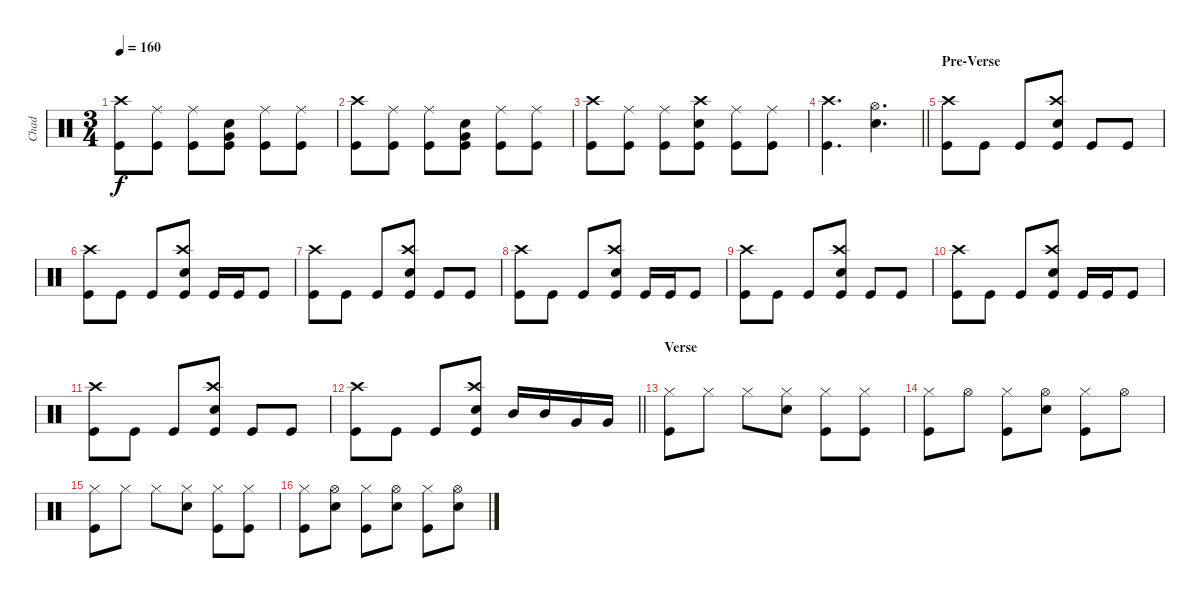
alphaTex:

\track ("Chad" "Chad") {instrument percussion}
\staff {score}
\articulation defaults
\ts (3 4)
\tempo 160
\clef neutral
\ks c
("Kick (hit)" "Crash high (hit)").8{dy f} ("Kick (hit)" "Ride (middle)").8 ("Kick (hit)" "Ride (middle)").8 ("Kick (hit)" "Snare (hit) 2" "Very Low Tom (hit)").8 ("Kick (hit)" "Ride (middle)").8 ("Kick (hit)" "Ride (middle)").8 |
("Kick (hit)" "Crash high (hit)").8 ("Kick (hit)" "Ride (middle)").8 ("Kick (hit)" "Ride (middle)").8 ("Kick (hit)" "Snare (hit) 2" "Very Low Tom (hit)").8 ("Kick (hit)" "Ride (middle)").8 ("Ride (middle)" "Kick (hit)").8 |
("Crash high (hit)" "Kick (hit)").8 ("Ride (middle)" "Kick (hit)").8 ("Ride (middle)" "Kick (hit)").8 ("Crash high (hit)" "Snare (hit) 2" "Kick (hit)").8 ("Ride (middle)" "Kick (hit)").8 ("Ride (middle)" "Kick (hit)").8 |
\barLineRight lightlight
("Kick (hit)" "Crash high (hit)").4{d} ("Snare (hit) 2" "Hi-Hat (open)").4{d} |
\section ("" "Pre-Verse")
("Crash high (hit)" "Kick (hit)").8 "Kick (hit)".8 "Kick (hit)".8 ("Kick (hit)" "Snare (hit) 2" "Crash high (hit)").8 "Kick (hit)".8 "Kick (hit)".8 |
("Crash high (hit)" "Kick (hit)").8 "Kick (hit)".8 "Kick (hit)".8 ("Kick (hit)" "Snare (hit) 2" "Crash high (hit)").8 "Kick (hit)".16 "Kick (hit)".16 "Kick (hit)".8 |
("Crash high (hit)" "Kick (hit)").8 "Kick (hit)".8 "Kick (hit)".8 ("Kick (hit)" "Snare (hit) 2" "Crash high (hit)").8 "Kick (hit)".8 "Kick (hit)".8 |
("Crash high (hit)" "Kick (hit)").8 "Kick (hit)".8 "Kick (hit)".8 ("Kick (hit)" "Snare (hit) 2" "Crash high (hit)").8 "Kick (hit)".16 "Kick (hit)".16 "Kick (hit)".8 |
("Crash high (hit)" "Kick (hit)").8 "Kick (hit)".8 "Kick (hit)".8 ("Kick (hit)" "Snare (hit) 2" "Crash high (hit)").8 "Kick (hit)".8 "Kick (hit)".8 |
("Crash high (hit)" "Kick (hit)").8 "Kick (hit)".8 "Kick (hit)".8 ("Kick (hit)" "Snare (hit) 2" "Crash high (hit)").8 "Kick (hit)".16 "Kick (hit)".16 "Kick (hit)".8 |
("Crash high (hit)" "Kick (hit)").8 "Kick (hit)".8 "Kick (hit)".8 ("Kick (hit)" "Snare (hit) 2" "Crash high (hit)").8 "Kick (hit)".8 "Kick (hit)".8 |
\barLineRight lightlight
("Crash high (hit)" "Kick (hit)").8 "Kick (hit)".8 "Kick (hit)".8 ("Kick (hit)" "Snare (hit) 2" "Crash high (hit)").8 "Mid Tom (hit)".16 "Mid Tom (hit)".16 "Very Low Tom (hit)".16 "Very Low Tom (hit)".16 |
\section ("" "Verse")
("Hi-Hat (closed)" "Kick (hit)").8 "Hi-Hat (closed)".8 "Hi-Hat (closed)".8 ("Hi-Hat (closed)" "Snare (hit) 2").8 ("Hi-Hat (closed)" "Kick (hit)").8 ("Hi-Hat (closed)" "Kick (hit)").8 |
("Hi-Hat (closed)" "Kick (hit)").8 "Hi-Hat (open)".8 ("Hi-Hat (closed)" "Kick (hit)").8 ("Hi-Hat (open)" "Snare (hit) 2").8 ("Hi-Hat (closed)" "Kick (hit)").8 "Hi-Hat (open)".8 |
("Hi-Hat (closed)" "Kick (hit)").8 "Hi-Hat (closed)".8 "Hi-Hat (closed)".8 ("Hi-Hat (closed)" "Snare (hit) 2").8 ("Hi-Hat (closed)" "Kick (hit)").8 ("Hi-Hat (closed)" "Kick (hit)").8 |
("Hi-Hat (closed)" "Kick (hit)").8 ("Hi-Hat (open)" "Snare (hit) 2").8 ("Hi-Hat (closed)" "Kick (hit)").8 ("Hi-Hat (open)" "Snare (hit) 2").8 ("Hi-Hat (closed)" "Kick (hit)").8 ("Hi-Hat (open)" "Snare (hit) 2").8
